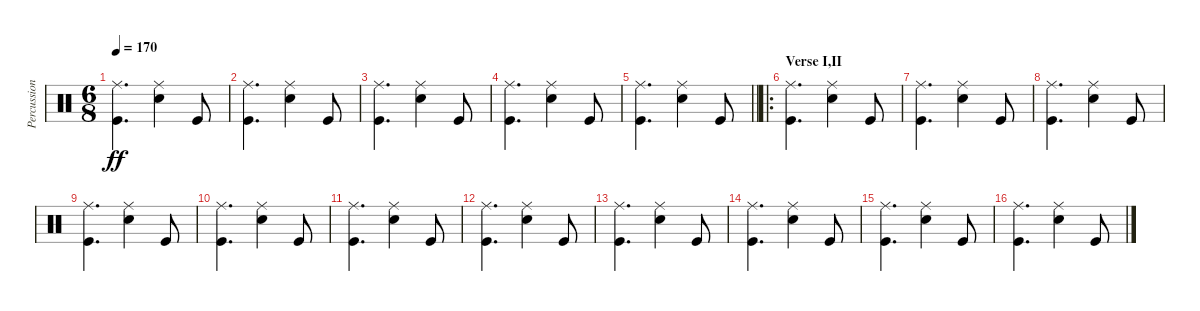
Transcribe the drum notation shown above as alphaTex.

\track ("Percussion" "Percussion") {instrument percussion}
\staff {score}
\articulation defaults
\ts (6 8)
\tempo 170
\clef neutral
\ks c
("Ride (middle)" "Kick (hit)").4{d dy ff} ("Ride (middle)" "Snare (hit) 2").4 "Kick (hit)".8 |
("Ride (middle)" "Kick (hit)").4{d} ("Ride (middle)" "Snare (hit) 2").4 "Kick (hit)".8 |
("Ride (middle)" "Kick (hit)").4{d} ("Ride (middle)" "Snare (hit) 2").4 "Kick (hit)".8 |
("Ride (middle)" "Kick (hit)").4{d} ("Ride (middle)" "Snare (hit) 2").4 "Kick (hit)".8 |
\barLineRight lightlight
("Ride (middle)" "Kick (hit)").4{d} ("Ride (middle)" "Snare (hit) 2").4 "Kick (hit)".8 |
\ro
\section ("" "Verse I,II")
("Ride (middle)" "Kick (hit)").4{d} ("Ride (middle)" "Snare (hit) 2").4 "Kick (hit)".8 |
("Ride (middle)" "Kick (hit)").4{d} ("Ride (middle)" "Snare (hit) 2").4 "Kick (hit)".8 |
("Ride (middle)" "Kick (hit)").4{d} ("Ride (middle)" "Snare (hit) 2").4 "Kick (hit)".8 |
("Ride (middle)" "Kick (hit)").4{d} ("Ride (middle)" "Snare (hit) 2").4 "Kick (hit)".8 |
("Ride (middle)" "Kick (hit)").4{d} ("Ride (middle)" "Snare (hit) 2").4 "Kick (hit)".8 |
("Ride (middle)" "Kick (hit)").4{d} ("Ride (middle)" "Snare (hit) 2").4 "Kick (hit)".8 |
("Ride (middle)" "Kick (hit)").4{d} ("Ride (middle)" "Snare (hit) 2").4 "Kick (hit)".8 |
("Ride (middle)" "Kick (hit)").4{d} ("Ride (middle)" "Snare (hit) 2").4 "Kick (hit)".8 |
("Ride (middle)" "Kick (hit)").4{d} ("Ride (middle)" "Snare (hit) 2").4 "Kick (hit)".8 |
("Ride (middle)" "Kick (hit)").4{d} ("Ride (middle)" "Snare (hit) 2").4 "Kick (hit)".8 |
("Ride (middle)" "Kick (hit)").4{d} ("Ride (middle)" "Snare (hit) 2").4 "Kick (hit)".8
